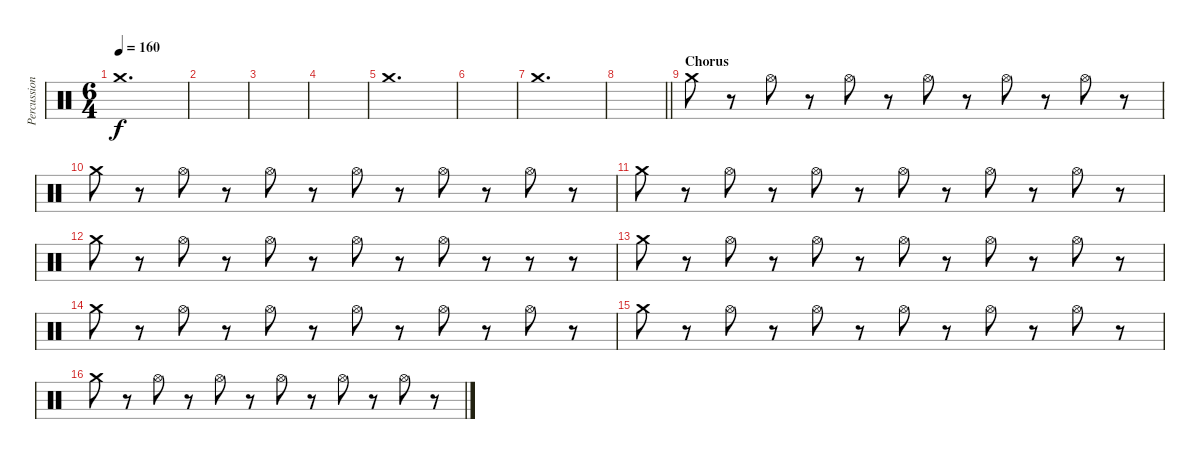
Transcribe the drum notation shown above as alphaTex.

\track ("Percussion" "Percussion") {instrument percussion}
\staff {score}
\articulation defaults
\ts (6 4)
\tempo 160
\clef neutral
\ks c "Crash medium (hit)".1{d dy f}
|
|
|
|
"Crash medium (hit)".1{d} |
|
"Crash medium (hit)".1{d} |
\barLineRight lightlight
|
\section ("" "Chorus")
"Crash medium (hit)".8 r.8 "Hi-Hat (open)".8 r.8 "Hi-Hat (open)".8 r.8 "Hi-Hat (open)".8 r.8 "Hi-Hat (open)".8 r.8 "Hi-Hat (open)".8 r.8 |
"Crash medium (hit)".8 r.8 "Hi-Hat (open)".8 r.8 "Hi-Hat (open)".8 r.8 "Hi-Hat (open)".8 r.8 "Hi-Hat (open)".8 r.8 "Hi-Hat (open)".8 r.8 |
"Crash medium (hit)".8 r.8 "Hi-Hat (open)".8 r.8 "Hi-Hat (open)".8 r.8 "Hi-Hat (open)".8 r.8 "Hi-Hat (open)".8 r.8 "Hi-Hat (open)".8 r.8 |
"Crash medium (hit)".8 r.8 "Hi-Hat (open)".8 r.8 "Hi-Hat (open)".8 r.8 "Hi-Hat (open)".8 r.8 "Hi-Hat (open)".8 r.8 r.8 r.8 |
"Crash medium (hit)".8 r.8 "Hi-Hat (open)".8 r.8 "Hi-Hat (open)".8 r.8 "Hi-Hat (open)".8 r.8 "Hi-Hat (open)".8 r.8 "Hi-Hat (open)".8 r.8 |
"Crash medium (hit)".8 r.8 "Hi-Hat (open)".8 r.8 "Hi-Hat (open)".8 r.8 "Hi-Hat (open)".8 r.8 "Hi-Hat (open)".8 r.8 "Hi-Hat (open)".8 r.8 |
"Crash medium (hit)".8 r.8 "Hi-Hat (open)".8 r.8 "Hi-Hat (open)".8 r.8 "Hi-Hat (open)".8 r.8 "Hi-Hat (open)".8 r.8 "Hi-Hat (open)".8 r.8 |
"Crash medium (hit)".8 r.8 "Hi-Hat (open)".8 r.8 "Hi-Hat (open)".8 r.8 "Hi-Hat (open)".8 r.8 "Hi-Hat (open)".8 r.8 "Hi-Hat (open)".8 r.8
